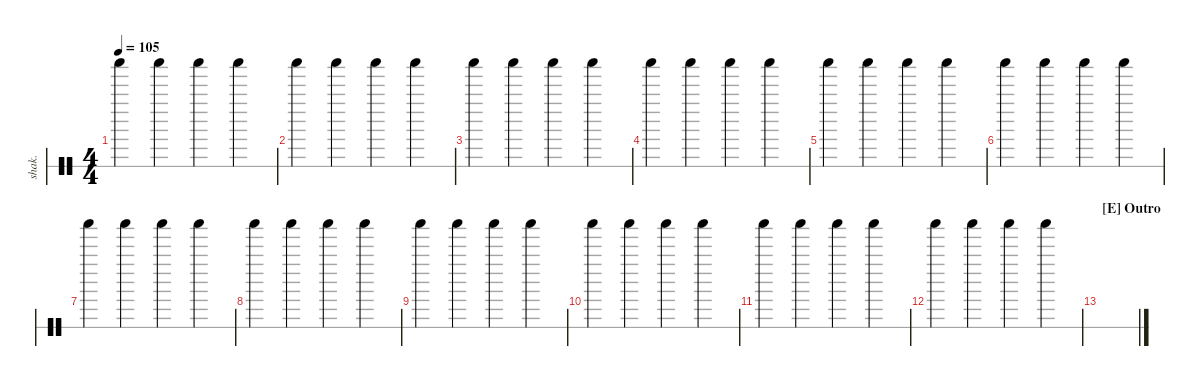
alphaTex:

\defaultSystemsLayout 4
\hideDynamics
\bracketExtendMode nobrackets
\otherSystemsTrackNameOrientation horizontal
\track ("Shaker" "shak.") {instrument percussion}
\staff {score 1}
\articulation defaults
\ts (4 4)
\tempo 105
\clef neutral
\ks c "Shaker (hit)".4{dy mp beam Down} "Shaker (hit)".4{beam Down} "Shaker (hit)".4{beam Down} "Shaker (hit)".4{beam Down}
|
"Shaker (hit)".4{beam Down} "Shaker (hit)".4{beam Down} "Shaker (hit)".4{beam Down} "Shaker (hit)".4{beam Down} |
"Shaker (hit)".4{beam Down} "Shaker (hit)".4{beam Down} "Shaker (hit)".4{beam Down} "Shaker (hit)".4{beam Down} |
"Shaker (hit)".4{beam Down} "Shaker (hit)".4{beam Down} "Shaker (hit)".4{beam Down} "Shaker (hit)".4{beam Down} |
"Shaker (hit)".4{beam Down} "Shaker (hit)".4{beam Down} "Shaker (hit)".4{beam Down} "Shaker (hit)".4{beam Down} |
"Shaker (hit)".4{beam Down} "Shaker (hit)".4{beam Down} "Shaker (hit)".4{beam Down} "Shaker (hit)".4{beam Down} |
"Shaker (hit)".4{beam Down} "Shaker (hit)".4{beam Down} "Shaker (hit)".4{beam Down} "Shaker (hit)".4{beam Down} |
"Shaker (hit)".4{beam Down} "Shaker (hit)".4{beam Down} "Shaker (hit)".4{beam Down} "Shaker (hit)".4{beam Down} |
"Shaker (hit)".4{beam Down} "Shaker (hit)".4{beam Down} "Shaker (hit)".4{beam Down} "Shaker (hit)".4{beam Down} |
"Shaker (hit)".4{beam Down} "Shaker (hit)".4{beam Down} "Shaker (hit)".4{beam Down} "Shaker (hit)".4{beam Down} |
"Shaker (hit)".4{beam Down} "Shaker (hit)".4{beam Down} "Shaker (hit)".4{beam Down} "Shaker (hit)".4{beam Down} |
"Shaker (hit)".4{beam Down} "Shaker (hit)".4{beam Down} "Shaker (hit)".4{beam Down} "Shaker (hit)".4{beam Down} |
\section ("E" "Outro")
